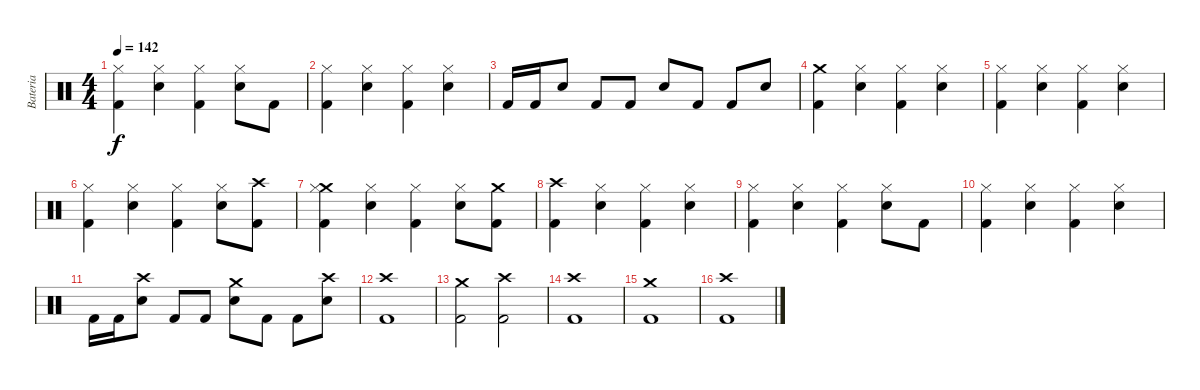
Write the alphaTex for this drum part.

\track ("Bateria" "Bateria") {instrument percussion}
\staff {score}
\articulation defaults
\ts (4 4)
\tempo 142
\clef neutral
\ks c
("Hi-Hat (closed)" "Kick (hit) 2").4{dy f} ("Hi-Hat (closed)" "Electric Snare (hit)").4 ("Hi-Hat (closed)" "Kick (hit) 2").4 ("Hi-Hat (closed)" "Electric Snare (hit)").8 "Kick (hit) 2".8 |
("Hi-Hat (closed)" "Kick (hit) 2").4 ("Hi-Hat (closed)" "Electric Snare (hit)").4 ("Hi-Hat (closed)" "Kick (hit) 2").4 ("Hi-Hat (closed)" "Electric Snare (hit)").4 |
"Kick (hit) 2".16 "Kick (hit) 2".16 "Electric Snare (hit)".8 "Kick (hit) 2".8 "Kick (hit) 2".8 "Electric Snare (hit)".8 "Kick (hit) 2".8 "Kick (hit) 2".8 "Electric Snare (hit)".8 |
("Crash medium (hit)" "Kick (hit) 2").4 ("Hi-Hat (closed)" "Electric Snare (hit)").4 ("Hi-Hat (closed)" "Kick (hit) 2").4 ("Hi-Hat (closed)" "Electric Snare (hit)").4 |
("Hi-Hat (closed)" "Kick (hit) 2").4 ("Hi-Hat (closed)" "Electric Snare (hit)").4 ("Hi-Hat (closed)" "Kick (hit) 2").4 ("Hi-Hat (closed)" "Electric Snare (hit)").4 |
("Hi-Hat (closed)" "Kick (hit) 2").4 ("Hi-Hat (closed)" "Electric Snare (hit)").4 ("Hi-Hat (closed)" "Kick (hit) 2").4 ("Hi-Hat (closed)" "Electric Snare (hit)").8 ("Crash high (hit)" "Kick (hit) 2").8 |
("Crash medium (hit)" "Hi-Hat (closed)" "Kick (hit) 2").4 ("Hi-Hat (closed)" "Electric Snare (hit)").4 ("Hi-Hat (closed)" "Kick (hit) 2").4 ("Hi-Hat (closed)" "Electric Snare (hit)").8 ("Crash medium (hit)" "Kick (hit) 2").8 |
("Crash high (hit)" "Kick (hit) 2").4 ("Hi-Hat (closed)" "Electric Snare (hit)").4 ("Hi-Hat (closed)" "Kick (hit) 2").4 ("Hi-Hat (closed)" "Electric Snare (hit)").4 |
("Hi-Hat (closed)" "Kick (hit) 2").4 ("Hi-Hat (closed)" "Electric Snare (hit)").4 ("Hi-Hat (closed)" "Kick (hit) 2").4 ("Hi-Hat (closed)" "Electric Snare (hit)").8 "Kick (hit) 2".8 |
("Hi-Hat (closed)" "Kick (hit) 2").4 ("Hi-Hat (closed)" "Electric Snare (hit)").4 ("Hi-Hat (closed)" "Kick (hit) 2").4 ("Hi-Hat (closed)" "Electric Snare (hit)").4 |
"Kick (hit) 2".16 "Kick (hit) 2".16 ("Crash high (hit)" "Electric Snare (hit)").8 "Kick (hit) 2".8 "Kick (hit) 2".8 ("Crash medium (hit)" "Electric Snare (hit)").8 "Kick (hit) 2".8 "Kick (hit) 2".8 ("Crash high (hit)" "Electric Snare (hit)").8 |
("Crash high (hit)" "Kick (hit) 2").1 |
("Crash medium (hit)" "Kick (hit) 2").2 ("Crash high (hit)" "Kick (hit) 2").2 |
("Crash high (hit)" "Kick (hit) 2").1 |
("Crash medium (hit)" "Kick (hit) 2").1 |
("Crash high (hit)" "Kick (hit) 2").1
